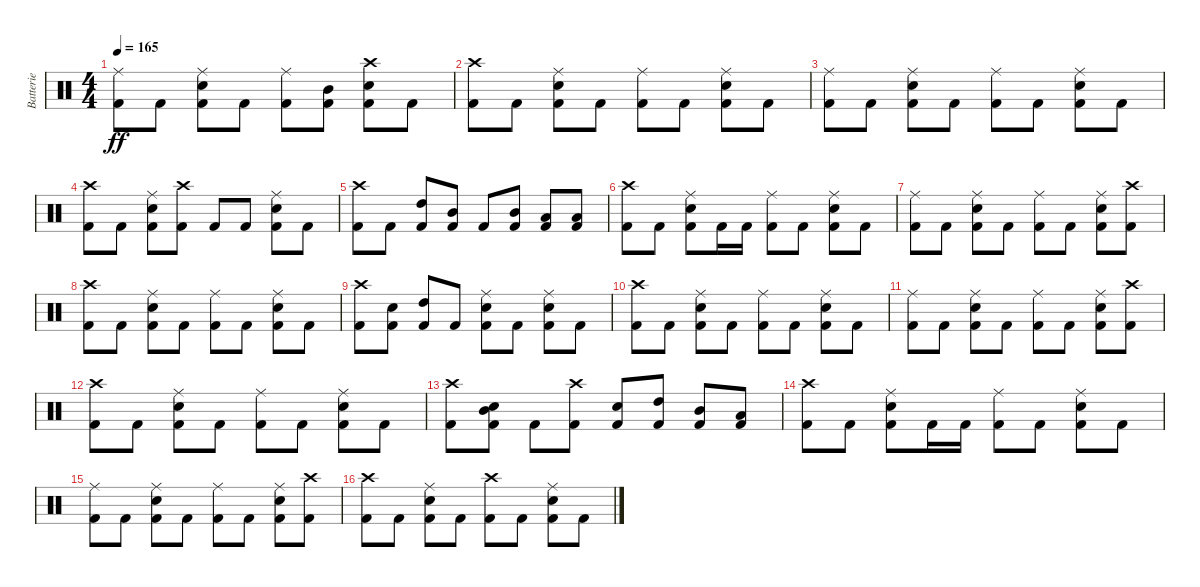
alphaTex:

\track ("Batterie" "Batterie") {instrument percussion}
\staff {score}
\articulation defaults
\ts (4 4)
\tempo 165
\clef neutral
\ks c
("Ride (middle)" "Kick (hit) 2").8{dy ff} "Kick (hit) 2".8 ("Ride (middle)" "Snare (hit) 2" "Kick (hit) 2").8 "Kick (hit) 2".8 ("Ride (middle)" "Kick (hit) 2").8 ("Mid Tom (hit)" "Kick (hit) 2").8 ("Crash high (hit)" "Snare (hit) 2" "Kick (hit) 2").8 "Kick (hit) 2".8 |
("Crash high (hit)" "Kick (hit) 2").8 "Kick (hit) 2".8 ("Ride (middle)" "Snare (hit) 2" "Kick (hit) 2").8 "Kick (hit) 2".8 ("Ride (middle)" "Kick (hit) 2").8 "Kick (hit) 2".8 ("Ride (middle)" "Snare (hit) 2" "Kick (hit) 2").8 "Kick (hit) 2".8 |
("Ride (middle)" "Kick (hit) 2").8 "Kick (hit) 2".8 ("Ride (middle)" "Snare (hit) 2" "Kick (hit) 2").8 "Kick (hit) 2".8 ("Ride (middle)" "Kick (hit) 2").8 "Kick (hit) 2".8 ("Ride (middle)" "Snare (hit) 2" "Kick (hit) 2").8 "Kick (hit) 2".8 |
("Crash high (hit)" "Kick (hit) 2").8 "Kick (hit) 2".8 ("Ride (middle)" "Snare (hit) 2" "Kick (hit) 2").8 ("Crash high (hit)" "Kick (hit) 2").8 "Kick (hit) 2".8 "Kick (hit) 2".8 ("Ride (middle)" "Snare (hit) 2" "Kick (hit) 2").8 "Kick (hit) 2".8 |
("Crash high (hit)" "Kick (hit) 2").8 "Kick (hit) 2".8 ("High Tom (hit)" "Kick (hit) 2").8 ("Mid Tom (hit)" "Kick (hit) 2").8 "Kick (hit) 2".8 ("Mid Tom (hit)" "Kick (hit) 2").8 ("Low Tom (hit)" "Kick (hit) 2").8 ("Low Tom (hit)" "Kick (hit) 2").8 |
("Crash high (hit)" "Kick (hit) 2").8 "Kick (hit) 2".8 ("Ride (middle)" "Snare (hit) 2" "Kick (hit) 2").8 "Kick (hit) 2".16 "Kick (hit) 2".16 ("Ride (middle)" "Kick (hit) 2").8 "Kick (hit) 2".8 ("Ride (middle)" "Snare (hit) 2" "Kick (hit) 2").8 "Kick (hit) 2".8 |
("Ride (middle)" "Kick (hit) 2").8 "Kick (hit) 2".8 ("Ride (middle)" "Snare (hit) 2" "Kick (hit) 2").8 "Kick (hit) 2".8 ("Ride (middle)" "Kick (hit) 2").8 "Kick (hit) 2".8 ("Ride (middle)" "Snare (hit) 2" "Kick (hit) 2").8 ("Crash high (hit)" "Kick (hit) 2").8 |
("Crash high (hit)" "Kick (hit) 2").8 "Kick (hit) 2".8 ("Ride (middle)" "Snare (hit) 2" "Kick (hit) 2").8 "Kick (hit) 2".8 ("Ride (middle)" "Kick (hit) 2").8 "Kick (hit) 2".8 ("Ride (middle)" "Snare (hit) 2" "Kick (hit) 2").8 "Kick (hit) 2".8 |
("Crash high (hit)" "Kick (hit) 2").8 ("Snare (hit) 2" "Kick (hit) 2").8 ("High Tom (hit)" "Kick (hit) 2").8 "Kick (hit) 2".8 ("Ride (middle)" "Snare (hit) 2" "Kick (hit) 2").8 "Kick (hit) 2".8 ("Ride (middle)" "Snare (hit) 2" "Kick (hit) 2").8 "Kick (hit) 2".8 |
("Crash high (hit)" "Kick (hit) 2").8 "Kick (hit) 2".8 ("Ride (middle)" "Snare (hit) 2" "Kick (hit) 2").8 "Kick (hit) 2".8 ("Ride (middle)" "Kick (hit) 2").8 "Kick (hit) 2".8 ("Ride (middle)" "Snare (hit) 2" "Kick (hit) 2").8 "Kick (hit) 2".8 |
("Ride (middle)" "Kick (hit) 2").8 "Kick (hit) 2".8 ("Ride (middle)" "Snare (hit) 2" "Kick (hit) 2").8 "Kick (hit) 2".8 ("Ride (middle)" "Kick (hit) 2").8 "Kick (hit) 2".8 ("Ride (middle)" "Snare (hit) 2" "Kick (hit) 2").8 ("Crash high (hit)" "Kick (hit) 2").8 |
("Crash high (hit)" "Kick (hit) 2").8 "Kick (hit) 2".8 ("Ride (middle)" "Snare (hit) 2" "Kick (hit) 2").8 "Kick (hit) 2".8 ("Ride (middle)" "Kick (hit) 2").8 "Kick (hit) 2".8 ("Ride (middle)" "Snare (hit) 2" "Kick (hit) 2").8 "Kick (hit) 2".8 |
("Crash high (hit)" "Kick (hit) 2").8 ("Mid Tom (hit)" "Snare (hit) 2" "Kick (hit) 2").8 "Kick (hit) 2".8 ("Crash high (hit)" "Kick (hit) 2").8 ("Snare (hit) 2" "Kick (hit) 2").8 ("High Tom (hit)" "Kick (hit) 2").8 ("Mid Tom (hit)" "Kick (hit) 2").8 ("Low Tom (hit)" "Kick (hit) 2").8 |
("Crash high (hit)" "Kick (hit) 2").8 "Kick (hit) 2".8 ("Ride (middle)" "Snare (hit) 2" "Kick (hit) 2").8 "Kick (hit) 2".16 "Kick (hit) 2".16 ("Ride (middle)" "Kick (hit) 2").8 "Kick (hit) 2".8 ("Ride (middle)" "Snare (hit) 2" "Kick (hit) 2").8 "Kick (hit) 2".8 |
("Ride (middle)" "Kick (hit) 2").8 "Kick (hit) 2".8 ("Ride (middle)" "Snare (hit) 2" "Kick (hit) 2").8 "Kick (hit) 2".8 ("Ride (middle)" "Kick (hit) 2").8 "Kick (hit) 2".8 ("Ride (middle)" "Snare (hit) 2" "Kick (hit) 2").8 ("Crash high (hit)" "Kick (hit) 2").8 |
("Crash high (hit)" "Kick (hit) 2").8 "Kick (hit) 2".8 ("Ride (middle)" "Snare (hit) 2" "Kick (hit) 2").8 "Kick (hit) 2".8 ("Crash high (hit)" "Kick (hit) 2").8 "Kick (hit) 2".8 ("Ride (middle)" "Snare (hit) 2" "Kick (hit) 2").8 "Kick (hit) 2".8
